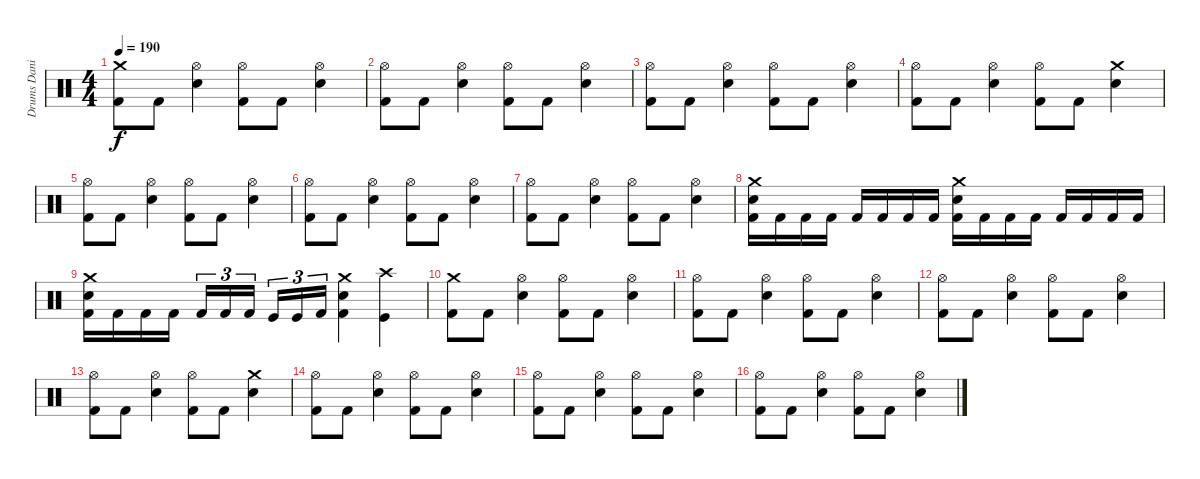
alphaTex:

\track ("Drums Daniel" "Drums Dani") {instrument percussion}
\staff {score}
\articulation defaults
\ts (4 4)
\tempo 190
\clef neutral
\ks c
("Crash medium (hit)" "Kick (hit) 2").8{dy f} "Kick (hit) 2".8 ("Hi-Hat (open)" "Electric Snare (hit)").4 ("Hi-Hat (open)" "Kick (hit) 2").8 "Kick (hit) 2".8 ("Hi-Hat (open)" "Electric Snare (hit)").4 |
("Hi-Hat (open)" "Kick (hit) 2").8 "Kick (hit) 2".8 ("Hi-Hat (open)" "Electric Snare (hit)").4 ("Hi-Hat (open)" "Kick (hit) 2").8 "Kick (hit) 2".8 ("Hi-Hat (open)" "Electric Snare (hit)").4 |
("Hi-Hat (open)" "Kick (hit) 2").8 "Kick (hit) 2".8 ("Hi-Hat (open)" "Electric Snare (hit)").4 ("Hi-Hat (open)" "Kick (hit) 2").8 "Kick (hit) 2".8 ("Hi-Hat (open)" "Electric Snare (hit)").4 |
("Hi-Hat (open)" "Kick (hit) 2").8 "Kick (hit) 2".8 ("Hi-Hat (open)" "Electric Snare (hit)").4 ("Hi-Hat (open)" "Kick (hit) 2").8 "Kick (hit) 2".8 ("Crash medium (hit)" "Electric Snare (hit)").4 |
("Hi-Hat (open)" "Kick (hit) 2").8 "Kick (hit) 2".8 ("Hi-Hat (open)" "Electric Snare (hit)").4 ("Hi-Hat (open)" "Kick (hit) 2").8 "Kick (hit) 2".8 ("Hi-Hat (open)" "Electric Snare (hit)").4 |
("Hi-Hat (open)" "Kick (hit) 2").8 "Kick (hit) 2".8 ("Hi-Hat (open)" "Electric Snare (hit)").4 ("Hi-Hat (open)" "Kick (hit) 2").8 "Kick (hit) 2".8 ("Hi-Hat (open)" "Electric Snare (hit)").4 |
("Hi-Hat (open)" "Kick (hit) 2").8 "Kick (hit) 2".8 ("Hi-Hat (open)" "Electric Snare (hit)").4 ("Hi-Hat (open)" "Kick (hit) 2").8 "Kick (hit) 2".8 ("Hi-Hat (open)" "Electric Snare (hit)").4 |
("Crash medium (hit)" "Electric Snare (hit)" "Kick (hit) 2").16 "Kick (hit) 2".16 "Kick (hit) 2".16 "Kick (hit) 2".16 "Kick (hit) 2".16 "Kick (hit) 2".16 "Kick (hit) 2".16 "Kick (hit) 2".16 ("Crash medium (hit)" "Electric Snare (hit)" "Kick (hit) 2").16 "Kick (hit) 2".16 "Kick (hit) 2".16 "Kick (hit) 2".16 "Kick (hit) 2".16 "Kick (hit) 2".16 "Kick (hit) 2".16 "Kick (hit) 2".16 |
("Crash medium (hit)" "Electric Snare (hit)" "Kick (hit) 2").16 "Kick (hit) 2".16 "Kick (hit) 2".16 "Kick (hit) 2".16 "Kick (hit) 2".16{tu (3 2)} "Kick (hit) 2".16{tu (3 2)} "Kick (hit) 2".16{tu (3 2)} "Kick (hit)".16{tu (3 2)} "Kick (hit)".16{tu (3 2)} "Kick (hit) 2".16{tu (3 2)} ("Crash medium (hit)" "Electric Snare (hit)" "Kick (hit) 2").4 ("Crash high (hit)" "Kick (hit)").4 |
("Crash medium (hit)" "Kick (hit) 2").8 "Kick (hit) 2".8 ("Hi-Hat (open)" "Electric Snare (hit)").4 ("Hi-Hat (open)" "Kick (hit) 2").8 "Kick (hit) 2".8 ("Hi-Hat (open)" "Electric Snare (hit)").4 |
("Hi-Hat (open)" "Kick (hit) 2").8 "Kick (hit) 2".8 ("Hi-Hat (open)" "Electric Snare (hit)").4 ("Hi-Hat (open)" "Kick (hit) 2").8 "Kick (hit) 2".8 ("Hi-Hat (open)" "Electric Snare (hit)").4 |
("Hi-Hat (open)" "Kick (hit) 2").8 "Kick (hit) 2".8 ("Hi-Hat (open)" "Electric Snare (hit)").4 ("Hi-Hat (open)" "Kick (hit) 2").8 "Kick (hit) 2".8 ("Hi-Hat (open)" "Electric Snare (hit)").4 |
("Hi-Hat (open)" "Kick (hit) 2").8 "Kick (hit) 2".8 ("Hi-Hat (open)" "Electric Snare (hit)").4 ("Hi-Hat (open)" "Kick (hit) 2").8 "Kick (hit) 2".8 ("Crash medium (hit)" "Electric Snare (hit)").4 |
("Hi-Hat (open)" "Kick (hit) 2").8 "Kick (hit) 2".8 ("Hi-Hat (open)" "Electric Snare (hit)").4 ("Hi-Hat (open)" "Kick (hit) 2").8 "Kick (hit) 2".8 ("Hi-Hat (open)" "Electric Snare (hit)").4 |
("Hi-Hat (open)" "Kick (hit) 2").8 "Kick (hit) 2".8 ("Hi-Hat (open)" "Electric Snare (hit)").4 ("Hi-Hat (open)" "Kick (hit) 2").8 "Kick (hit) 2".8 ("Hi-Hat (open)" "Electric Snare (hit)").4 |
("Hi-Hat (open)" "Kick (hit) 2").8 "Kick (hit) 2".8 ("Hi-Hat (open)" "Electric Snare (hit)").4 ("Hi-Hat (open)" "Kick (hit) 2").8 "Kick (hit) 2".8 ("Hi-Hat (open)" "Electric Snare (hit)").4
